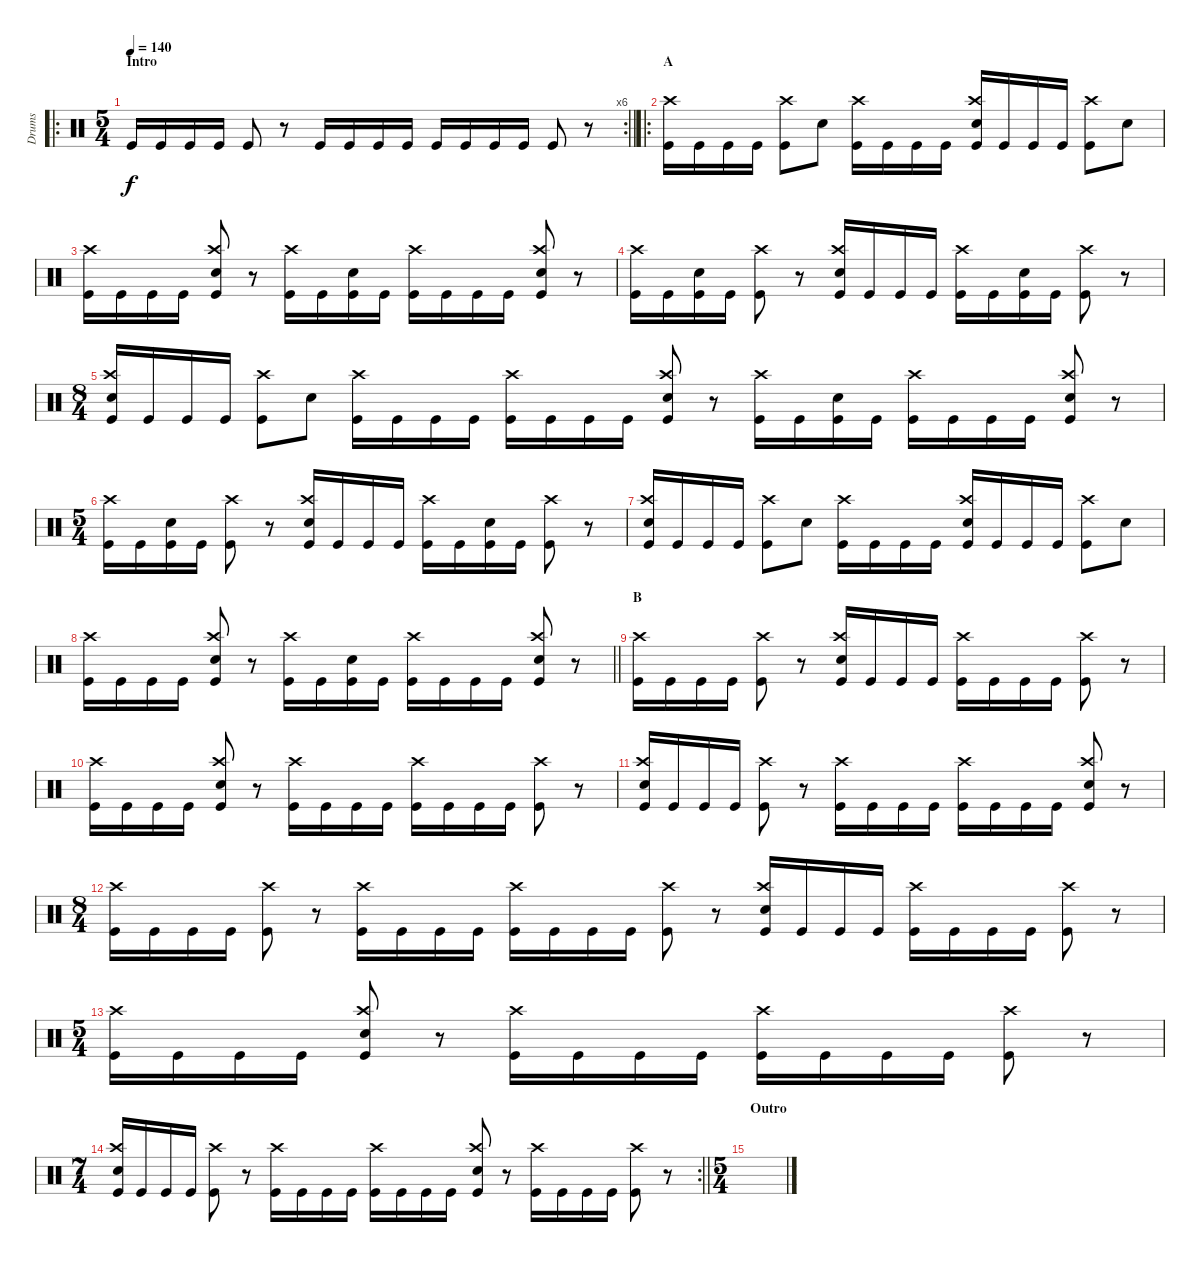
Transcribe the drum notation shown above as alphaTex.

\track ("Drums" "Drums") {instrument percussion}
\staff {score}
\articulation defaults
\ro
\rc 6
\ts (5 4)
\section ("" "Intro")
\tempo 140
\clef neutral
\barLineRight lightlight
\ks c "Kick (hit)".16{dy f} "Kick (hit)".16 "Kick (hit)".16 "Kick (hit)".16 "Kick (hit)".8
r.8 "Kick (hit)".16 "Kick (hit)".16 "Kick (hit)".16 "Kick (hit)".16 "Kick (hit)".16 "Kick (hit)".16 "Kick (hit)".16 "Kick (hit)".16 "Kick (hit)".8 r.8 |
\ro
\section ("" "A")
("Kick (hit)" "Crash high (hit)").16 "Kick (hit)".16 "Kick (hit)".16 "Kick (hit)".16 ("Kick (hit)" "Crash high (hit)").8 "Snare (hit) 2".8 ("Kick (hit)" "Crash high (hit)").16 "Kick (hit)".16 "Kick (hit)".16 "Kick (hit)".16 ("Kick (hit)" "Crash high (hit)" "Snare (hit) 2").16 "Kick (hit)".16 "Kick (hit)".16 "Kick (hit)".16 ("Kick (hit)" "Crash high (hit)").8 "Snare (hit) 2".8 |
("Kick (hit)" "Crash high (hit)").16 "Kick (hit)".16 "Kick (hit)".16 "Kick (hit)".16 ("Kick (hit)" "Crash high (hit)" "Snare (hit) 2").8 r.8 ("Kick (hit)" "Crash high (hit)").16 "Kick (hit)".16 ("Kick (hit)" "Snare (hit) 2").16 "Kick (hit)".16 ("Kick (hit)" "Crash high (hit)").16 "Kick (hit)".16 "Kick (hit)".16 "Kick (hit)".16 ("Kick (hit)" "Crash high (hit)" "Snare (hit) 2").8 r.8 |
("Kick (hit)" "Crash high (hit)").16 "Kick (hit)".16 ("Kick (hit)" "Snare (hit) 2").16 "Kick (hit)".16 ("Kick (hit)" "Crash high (hit)").8 r.8 ("Kick (hit)" "Crash high (hit)" "Snare (hit) 2").16 "Kick (hit)".16 "Kick (hit)".16 "Kick (hit)".16 ("Kick (hit)" "Crash high (hit)").16 "Kick (hit)".16 ("Kick (hit)" "Snare (hit) 2").16 "Kick (hit)".16 ("Kick (hit)" "Crash high (hit)").8 r.8 |
\ts (8 4)
("Kick (hit)" "Crash high (hit)" "Snare (hit) 2").16 "Kick (hit)".16 "Kick (hit)".16 "Kick (hit)".16 ("Kick (hit)" "Crash high (hit)").8 "Snare (hit) 2".8 ("Kick (hit)" "Crash high (hit)").16 "Kick (hit)".16 "Kick (hit)".16 "Kick (hit)".16 ("Kick (hit)" "Crash high (hit)").16 "Kick (hit)".16 "Kick (hit)".16 "Kick (hit)".16 ("Kick (hit)" "Crash high (hit)" "Snare (hit) 2").8 r.8 ("Kick (hit)" "Crash high (hit)").16 "Kick (hit)".16 ("Kick (hit)" "Snare (hit) 2").16 "Kick (hit)".16 ("Kick (hit)" "Crash high (hit)").16 "Kick (hit)".16 "Kick (hit)".16 "Kick (hit)".16 ("Kick (hit)" "Crash high (hit)" "Snare (hit) 2").8 r.8 |
\ts (5 4)
("Kick (hit)" "Crash high (hit)").16 "Kick (hit)".16 ("Kick (hit)" "Snare (hit) 2").16 "Kick (hit)".16 ("Kick (hit)" "Crash high (hit)").8 r.8 ("Kick (hit)" "Crash high (hit)" "Snare (hit) 2").16 "Kick (hit)".16 "Kick (hit)".16 "Kick (hit)".16 ("Kick (hit)" "Crash high (hit)").16 "Kick (hit)".16 ("Kick (hit)" "Snare (hit) 2").16 "Kick (hit)".16 ("Kick (hit)" "Crash high (hit)").8 r.8 |
("Kick (hit)" "Crash high (hit)" "Snare (hit) 2").16 "Kick (hit)".16 "Kick (hit)".16 "Kick (hit)".16 ("Kick (hit)" "Crash high (hit)").8 "Snare (hit) 2".8 ("Kick (hit)" "Crash high (hit)").16 "Kick (hit)".16 "Kick (hit)".16 "Kick (hit)".16 ("Kick (hit)" "Crash high (hit)" "Snare (hit) 2").16 "Kick (hit)".16 "Kick (hit)".16 "Kick (hit)".16 ("Kick (hit)" "Crash high (hit)").8 "Snare (hit) 2".8 |
\barLineRight lightlight
("Kick (hit)" "Crash high (hit)").16 "Kick (hit)".16 "Kick (hit)".16 "Kick (hit)".16 ("Kick (hit)" "Crash high (hit)" "Snare (hit) 2").8 r.8 ("Kick (hit)" "Crash high (hit)").16 "Kick (hit)".16 ("Kick (hit)" "Snare (hit) 2").16 "Kick (hit)".16 ("Kick (hit)" "Crash high (hit)").16 "Kick (hit)".16 "Kick (hit)".16 "Kick (hit)".16 ("Kick (hit)" "Crash high (hit)" "Snare (hit) 2").8 r.8 |
\section ("" "B")
("Kick (hit)" "Crash high (hit)").16 "Kick (hit)".16 "Kick (hit)".16 "Kick (hit)".16 ("Kick (hit)" "Crash high (hit)").8 r.8 ("Kick (hit)" "Crash high (hit)" "Snare (hit) 2").16 "Kick (hit)".16 "Kick (hit)".16 "Kick (hit)".16 ("Kick (hit)" "Crash high (hit)").16 "Kick (hit)".16 "Kick (hit)".16 "Kick (hit)".16 ("Kick (hit)" "Crash high (hit)").8 r.8 |
("Kick (hit)" "Crash high (hit)").16 "Kick (hit)".16 "Kick (hit)".16 "Kick (hit)".16 ("Kick (hit)" "Crash high (hit)" "Snare (hit) 2").8 r.8 ("Kick (hit)" "Crash high (hit)").16 "Kick (hit)".16 "Kick (hit)".16 "Kick (hit)".16 ("Kick (hit)" "Crash high (hit)").16 "Kick (hit)".16 "Kick (hit)".16 "Kick (hit)".16 ("Kick (hit)" "Crash high (hit)").8 r.8 |
("Kick (hit)" "Crash high (hit)" "Snare (hit) 2").16 "Kick (hit)".16 "Kick (hit)".16 "Kick (hit)".16 ("Kick (hit)" "Crash high (hit)").8 r.8 ("Kick (hit)" "Crash high (hit)").16 "Kick (hit)".16 "Kick (hit)".16 "Kick (hit)".16 ("Kick (hit)" "Crash high (hit)").16 "Kick (hit)".16 "Kick (hit)".16 "Kick (hit)".16 ("Kick (hit)" "Crash high (hit)" "Snare (hit) 2").8 r.8 |
\ts (8 4)
("Kick (hit)" "Crash high (hit)").16 "Kick (hit)".16 "Kick (hit)".16 "Kick (hit)".16 ("Kick (hit)" "Crash high (hit)").8 r.8 ("Kick (hit)" "Crash high (hit)").16 "Kick (hit)".16 "Kick (hit)".16 "Kick (hit)".16 ("Kick (hit)" "Crash high (hit)").16 "Kick (hit)".16 "Kick (hit)".16 "Kick (hit)".16 ("Kick (hit)" "Crash high (hit)").8 r.8 ("Kick (hit)" "Crash high (hit)" "Snare (hit) 2").16 "Kick (hit)".16 "Kick (hit)".16 "Kick (hit)".16 ("Kick (hit)" "Crash high (hit)").16 "Kick (hit)".16 "Kick (hit)".16 "Kick (hit)".16 ("Kick (hit)" "Crash high (hit)").8 r.8 |
\ts (5 4)
("Kick (hit)" "Crash high (hit)").16 "Kick (hit)".16 "Kick (hit)".16 "Kick (hit)".16 ("Kick (hit)" "Crash high (hit)" "Snare (hit) 2").8 r.8 ("Kick (hit)" "Crash high (hit)").16 "Kick (hit)".16 "Kick (hit)".16 "Kick (hit)".16 ("Kick (hit)" "Crash high (hit)").16 "Kick (hit)".16 "Kick (hit)".16 "Kick (hit)".16 ("Kick (hit)" "Crash high (hit)").8 r.8 |
\rc 2
\ts (7 4)
\barLineRight lightlight
("Kick (hit)" "Crash high (hit)" "Snare (hit) 2").16 "Kick (hit)".16 "Kick (hit)".16 "Kick (hit)".16 ("Kick (hit)" "Crash high (hit)").8 r.8 ("Kick (hit)" "Crash high (hit)").16 "Kick (hit)".16 "Kick (hit)".16 "Kick (hit)".16 ("Kick (hit)" "Crash high (hit)").16 "Kick (hit)".16 "Kick (hit)".16 "Kick (hit)".16 ("Kick (hit)" "Crash high (hit)" "Snare (hit) 2").8 r.8 ("Kick (hit)" "Crash high (hit)").16 "Kick (hit)".16 "Kick (hit)".16 "Kick (hit)".16 ("Kick (hit)" "Crash high (hit)").8 r.8 |
\ts (5 4)
\section ("" "Outro")
